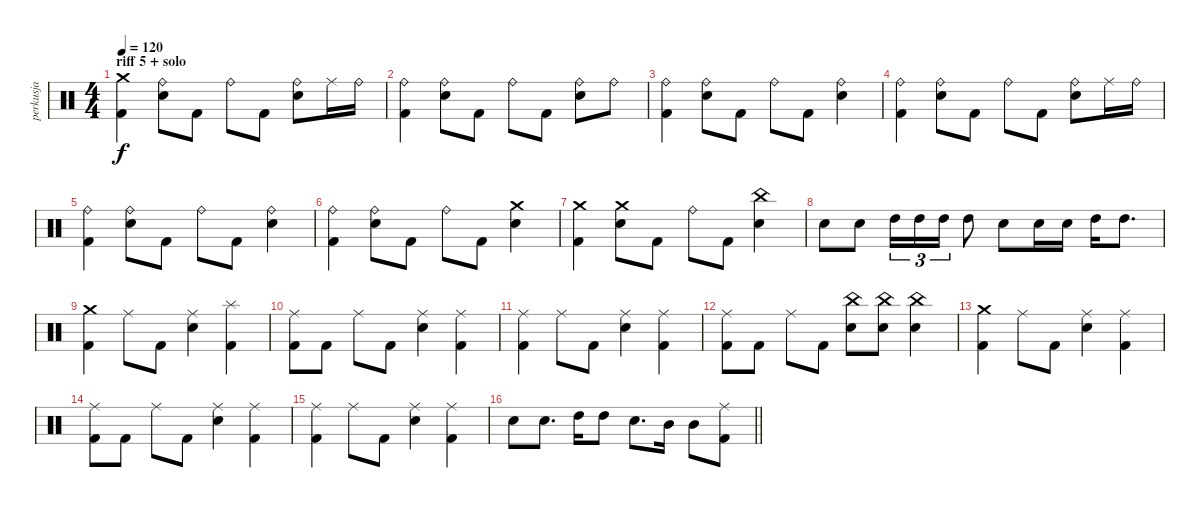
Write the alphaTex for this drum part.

\track ("perkusja" "perkusja") {instrument percussion}
\staff {score}
\articulation defaults
\ts (4 4)
\section ("" "riff 5 + solo")
\tempo 120
\clef neutral
\ks c
("Crash medium (hit)" "Kick (hit) 2").4{dy f} ("Ride (bell)" "Electric Snare (hit)").8 "Kick (hit) 2".8 "Ride (bell)".8 "Kick (hit) 2".8 ("Ride (bell)" "Electric Snare (hit)").8 "Ride (middle)".16 "Ride (bell)".16 |
("Ride (bell)" "Kick (hit) 2").4 ("Ride (bell)" "Electric Snare (hit)").8 "Kick (hit) 2".8 "Ride (bell)".8 "Kick (hit) 2".8 ("Ride (bell)" "Electric Snare (hit)").8 "Ride (bell)".8 |
("Ride (bell)" "Kick (hit) 2").4 ("Ride (bell)" "Electric Snare (hit)").8 "Kick (hit) 2".8 "Ride (bell)".8 "Kick (hit) 2".8 ("Ride (bell)" "Electric Snare (hit)").4 |
("Ride (bell)" "Kick (hit) 2").4 ("Ride (bell)" "Electric Snare (hit)").8 "Kick (hit) 2".8 "Ride (bell)".8 "Kick (hit) 2".8 ("Ride (bell)" "Electric Snare (hit)").8 "Ride (middle)".16 "Ride (bell)".16 |
("Ride (bell)" "Kick (hit) 2").4 ("Ride (bell)" "Electric Snare (hit)").8 "Kick (hit) 2".8 "Ride (bell)".8 "Kick (hit) 2".8 ("Ride (bell)" "Electric Snare (hit)").4 |
("Ride (bell)" "Kick (hit) 2").4 ("Ride (bell)" "Electric Snare (hit)").8 "Kick (hit) 2".8 "Ride (bell)".8 "Kick (hit) 2".8 ("Crash medium (hit)" "Electric Snare (hit)").4 |
("Crash medium (hit)" "Kick (hit) 2").4 ("Crash medium (hit)" "Electric Snare (hit)").8 "Kick (hit) 2".8 "Ride (bell)".8 "Kick (hit) 2".8 ("China (hit)" "Electric Snare (hit)").4 |
"Electric Snare (hit)".8 "Electric Snare (hit)".8 "High Tom (hit)".16{tu (3 2)} "High Tom (hit)".16{tu (3 2)} "High Tom (hit)".16{tu (3 2)} "High Tom (hit)".8 "Electric Snare (hit)".8 "Electric Snare (hit)".16 "Electric Snare (hit)".16 "High Tom (hit)".16 "High Tom (hit)".8{d} |
("Crash medium (hit)" "Kick (hit) 2").4 "Ride (middle)".8 "Kick (hit) 2".8 ("Ride (middle)" "Electric Snare (hit)").4 ("Splash (hit)" "Kick (hit) 2").4 |
("Ride (middle)" "Kick (hit) 2").8 "Kick (hit) 2".8 "Ride (middle)".8 "Kick (hit) 2".8 ("Ride (middle)" "Electric Snare (hit)").4 ("Ride (middle)" "Kick (hit) 2").4 |
("Ride (middle)" "Kick (hit) 2").4 "Ride (middle)".8 "Kick (hit) 2".8 ("Ride (middle)" "Electric Snare (hit)").4 ("Ride (middle)" "Kick (hit) 2").4 |
("Ride (middle)" "Kick (hit) 2").8 "Kick (hit) 2".8 "Ride (middle)".8 "Kick (hit) 2".8 ("China (hit)" "Electric Snare (hit)").8 ("China (hit)" "Electric Snare (hit)").8 ("China (hit)" "Electric Snare (hit)").4 |
("Crash medium (hit)" "Kick (hit) 2").4 "Ride (middle)".8 "Kick (hit) 2".8 ("Ride (middle)" "Electric Snare (hit)").4 ("Ride (middle)" "Kick (hit) 2").4 |
("Ride (middle)" "Kick (hit) 2").8 "Kick (hit) 2".8 "Ride (middle)".8 "Kick (hit) 2".8 ("Ride (middle)" "Electric Snare (hit)").4 ("Ride (middle)" "Kick (hit) 2").4 |
("Ride (middle)" "Kick (hit) 2").4 "Ride (middle)".8 "Kick (hit) 2".8 ("Ride (middle)" "Electric Snare (hit)").4 ("Ride (middle)" "Kick (hit) 2").4 |
\barLineRight lightlight "Electric Snare (hit)".8 "Electric Snare (hit)".8{d} "High Tom (hit)".16 "High Tom (hit)".8 "Electric Snare (hit)".8{d} "Mid Tom (hit)".16 "Mid Tom (hit)".8
("Ride (middle)" "Kick (hit) 2").8
